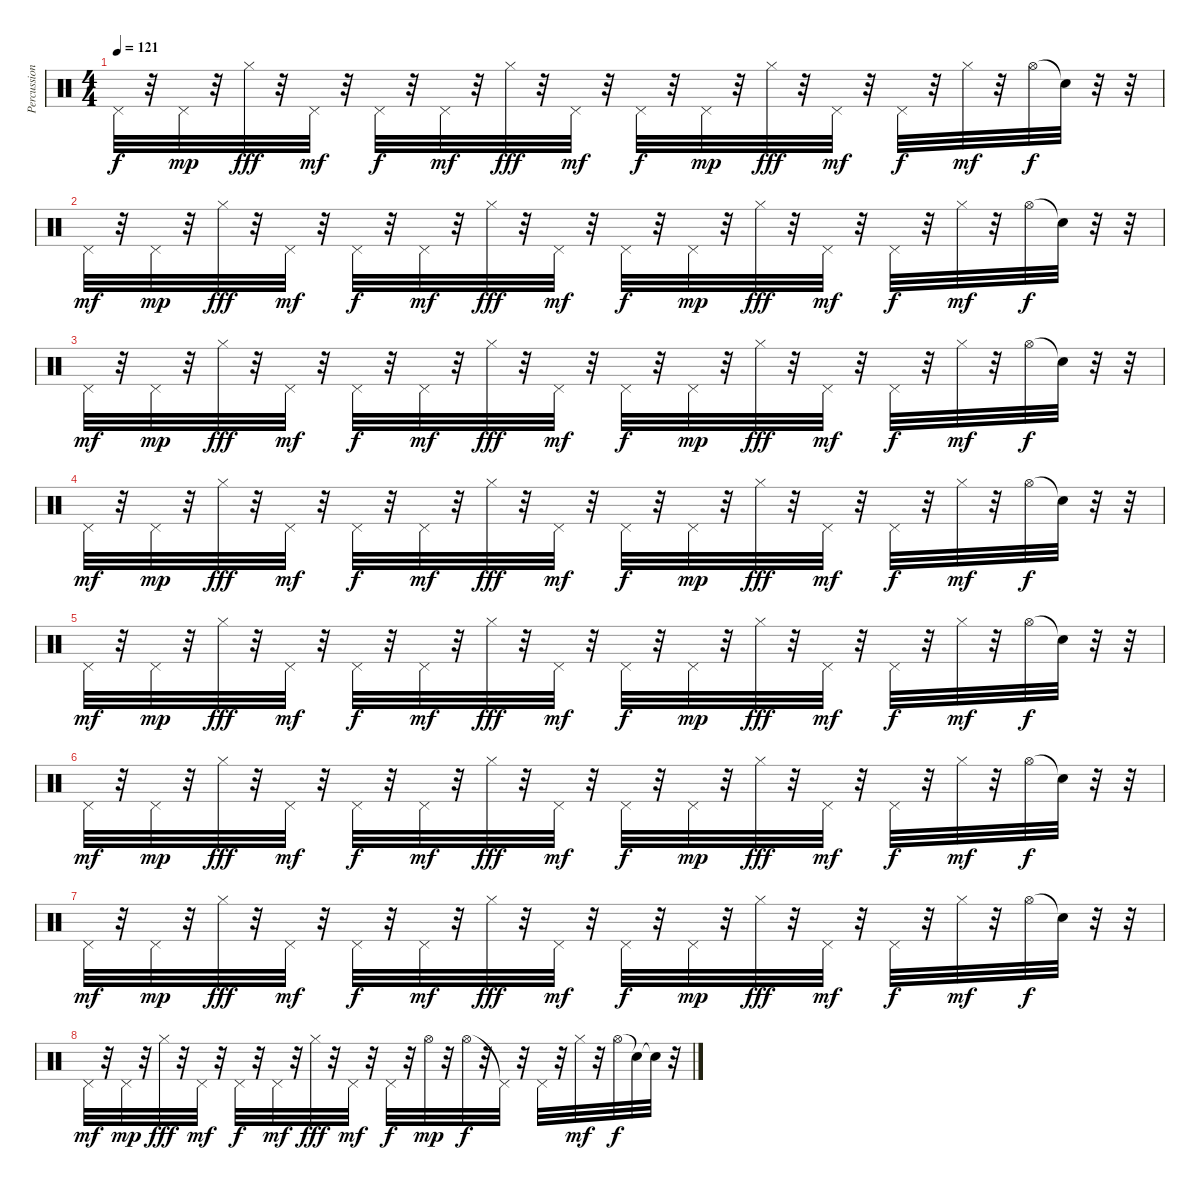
\track ("Percussions" "Percussion") {instrument percussion}
\staff {score}
\articulation defaults
\ts (4 4)
\tempo 121
\clef neutral
\ks c "Pedal Hi-Hat (hit)".32{dy f}
r.32 "Pedal Hi-Hat (hit)".32{dy mp} r.32 "Hi-Hat (closed)".32{dy fff} r.32 "Pedal Hi-Hat (hit)".32{dy mf} r.32 "Pedal Hi-Hat (hit)".32{dy f} r.32 "Pedal Hi-Hat (hit)".32{dy mf} r.32 "Hi-Hat (closed)".32{dy fff} r.32 "Pedal Hi-Hat (hit)".32{dy mf} r.32 "Pedal Hi-Hat (hit)".32{dy f} r.32 "Pedal Hi-Hat (hit)".32{dy mp} r.32 "Hi-Hat (closed)".32{dy fff} r.32 "Pedal Hi-Hat (hit)".32{dy mf} r.32 "Pedal Hi-Hat (hit)".32{dy f} r.32 "Hi-Hat (closed)".32{dy mf} r.32 "Hi-Hat (open)".32{dy f} "Snare (hit)"{t}.32 r.32 r.32 |
"Pedal Hi-Hat (hit)".32{dy mf} r.32 "Pedal Hi-Hat (hit)".32{dy mp} r.32 "Hi-Hat (closed)".32{dy fff} r.32 "Pedal Hi-Hat (hit)".32{dy mf} r.32 "Pedal Hi-Hat (hit)".32{dy f} r.32 "Pedal Hi-Hat (hit)".32{dy mf} r.32 "Hi-Hat (closed)".32{dy fff} r.32 "Pedal Hi-Hat (hit)".32{dy mf} r.32 "Pedal Hi-Hat (hit)".32{dy f} r.32 "Pedal Hi-Hat (hit)".32{dy mp} r.32 "Hi-Hat (closed)".32{dy fff} r.32 "Pedal Hi-Hat (hit)".32{dy mf} r.32 "Pedal Hi-Hat (hit)".32{dy f} r.32 "Hi-Hat (closed)".32{dy mf} r.32 "Hi-Hat (open)".32{dy f} "Snare (hit)"{t}.32 r.32 r.32 |
"Pedal Hi-Hat (hit)".32{dy mf} r.32 "Pedal Hi-Hat (hit)".32{dy mp} r.32 "Hi-Hat (closed)".32{dy fff} r.32 "Pedal Hi-Hat (hit)".32{dy mf} r.32 "Pedal Hi-Hat (hit)".32{dy f} r.32 "Pedal Hi-Hat (hit)".32{dy mf} r.32 "Hi-Hat (closed)".32{dy fff} r.32 "Pedal Hi-Hat (hit)".32{dy mf} r.32 "Pedal Hi-Hat (hit)".32{dy f} r.32 "Pedal Hi-Hat (hit)".32{dy mp} r.32 "Hi-Hat (closed)".32{dy fff} r.32 "Pedal Hi-Hat (hit)".32{dy mf} r.32 "Pedal Hi-Hat (hit)".32{dy f} r.32 "Hi-Hat (closed)".32{dy mf} r.32 "Hi-Hat (open)".32{dy f} "Snare (hit)"{t}.32 r.32 r.32 |
"Pedal Hi-Hat (hit)".32{dy mf} r.32 "Pedal Hi-Hat (hit)".32{dy mp} r.32 "Hi-Hat (closed)".32{dy fff} r.32 "Pedal Hi-Hat (hit)".32{dy mf} r.32 "Pedal Hi-Hat (hit)".32{dy f} r.32 "Pedal Hi-Hat (hit)".32{dy mf} r.32 "Hi-Hat (closed)".32{dy fff} r.32 "Pedal Hi-Hat (hit)".32{dy mf} r.32 "Pedal Hi-Hat (hit)".32{dy f} r.32 "Pedal Hi-Hat (hit)".32{dy mp} r.32 "Hi-Hat (closed)".32{dy fff} r.32 "Pedal Hi-Hat (hit)".32{dy mf} r.32 "Pedal Hi-Hat (hit)".32{dy f} r.32 "Hi-Hat (closed)".32{dy mf} r.32 "Hi-Hat (open)".32{dy f} "Snare (hit)"{t}.32 r.32 r.32 |
"Pedal Hi-Hat (hit)".32{dy mf} r.32 "Pedal Hi-Hat (hit)".32{dy mp} r.32 "Hi-Hat (closed)".32{dy fff} r.32 "Pedal Hi-Hat (hit)".32{dy mf} r.32 "Pedal Hi-Hat (hit)".32{dy f} r.32 "Pedal Hi-Hat (hit)".32{dy mf} r.32 "Hi-Hat (closed)".32{dy fff} r.32 "Pedal Hi-Hat (hit)".32{dy mf} r.32 "Pedal Hi-Hat (hit)".32{dy f} r.32 "Pedal Hi-Hat (hit)".32{dy mp} r.32 "Hi-Hat (closed)".32{dy fff} r.32 "Pedal Hi-Hat (hit)".32{dy mf} r.32 "Pedal Hi-Hat (hit)".32{dy f} r.32 "Hi-Hat (closed)".32{dy mf} r.32 "Hi-Hat (open)".32{dy f} "Snare (hit)"{t}.32 r.32 r.32 |
"Pedal Hi-Hat (hit)".32{dy mf} r.32 "Pedal Hi-Hat (hit)".32{dy mp} r.32 "Hi-Hat (closed)".32{dy fff} r.32 "Pedal Hi-Hat (hit)".32{dy mf} r.32 "Pedal Hi-Hat (hit)".32{dy f} r.32 "Pedal Hi-Hat (hit)".32{dy mf} r.32 "Hi-Hat (closed)".32{dy fff} r.32 "Pedal Hi-Hat (hit)".32{dy mf} r.32 "Pedal Hi-Hat (hit)".32{dy f} r.32 "Pedal Hi-Hat (hit)".32{dy mp} r.32 "Hi-Hat (closed)".32{dy fff} r.32 "Pedal Hi-Hat (hit)".32{dy mf} r.32 "Pedal Hi-Hat (hit)".32{dy f} r.32 "Hi-Hat (closed)".32{dy mf} r.32 "Hi-Hat (open)".32{dy f} "Snare (hit)"{t}.32 r.32 r.32 |
"Pedal Hi-Hat (hit)".32{dy mf} r.32 "Pedal Hi-Hat (hit)".32{dy mp} r.32 "Hi-Hat (closed)".32{dy fff} r.32 "Pedal Hi-Hat (hit)".32{dy mf} r.32 "Pedal Hi-Hat (hit)".32{dy f} r.32 "Pedal Hi-Hat (hit)".32{dy mf} r.32 "Hi-Hat (closed)".32{dy fff} r.32 "Pedal Hi-Hat (hit)".32{dy mf} r.32 "Pedal Hi-Hat (hit)".32{dy f} r.32 "Pedal Hi-Hat (hit)".32{dy mp} r.32 "Hi-Hat (closed)".32{dy fff} r.32 "Pedal Hi-Hat (hit)".32{dy mf} r.32 "Pedal Hi-Hat (hit)".32{dy f} r.32 "Hi-Hat (closed)".32{dy mf} r.32 "Hi-Hat (open)".32{dy f} "Snare (hit)"{t}.32 r.32 r.32 |
"Pedal Hi-Hat (hit)".32{dy mf} r.32 "Pedal Hi-Hat (hit)".32{dy mp} r.32 "Hi-Hat (closed)".32{dy fff} r.32 "Pedal Hi-Hat (hit)".32{dy mf} r.32 "Pedal Hi-Hat (hit)".32{dy f} r.32 "Pedal Hi-Hat (hit)".32{dy mf} r.32 "Hi-Hat (closed)".32{dy fff} r.32 "Pedal Hi-Hat (hit)".32{dy mf} r.32 "Pedal Hi-Hat (hit)".32{dy f} r.32 "Hi-Hat (open)".32{dy mp} r.32 "Hi-Hat (open)".32{dy f} r.32 "Pedal Hi-Hat (hit)"{t}.32 r.32 "Pedal Hi-Hat (hit)".32 r.32 "Hi-Hat (closed)".32{dy mf} r.32 "Hi-Hat (open)".32{dy f} "Snare (hit)"{t}.32 "Snare (hit)"{t}.32 r.32
